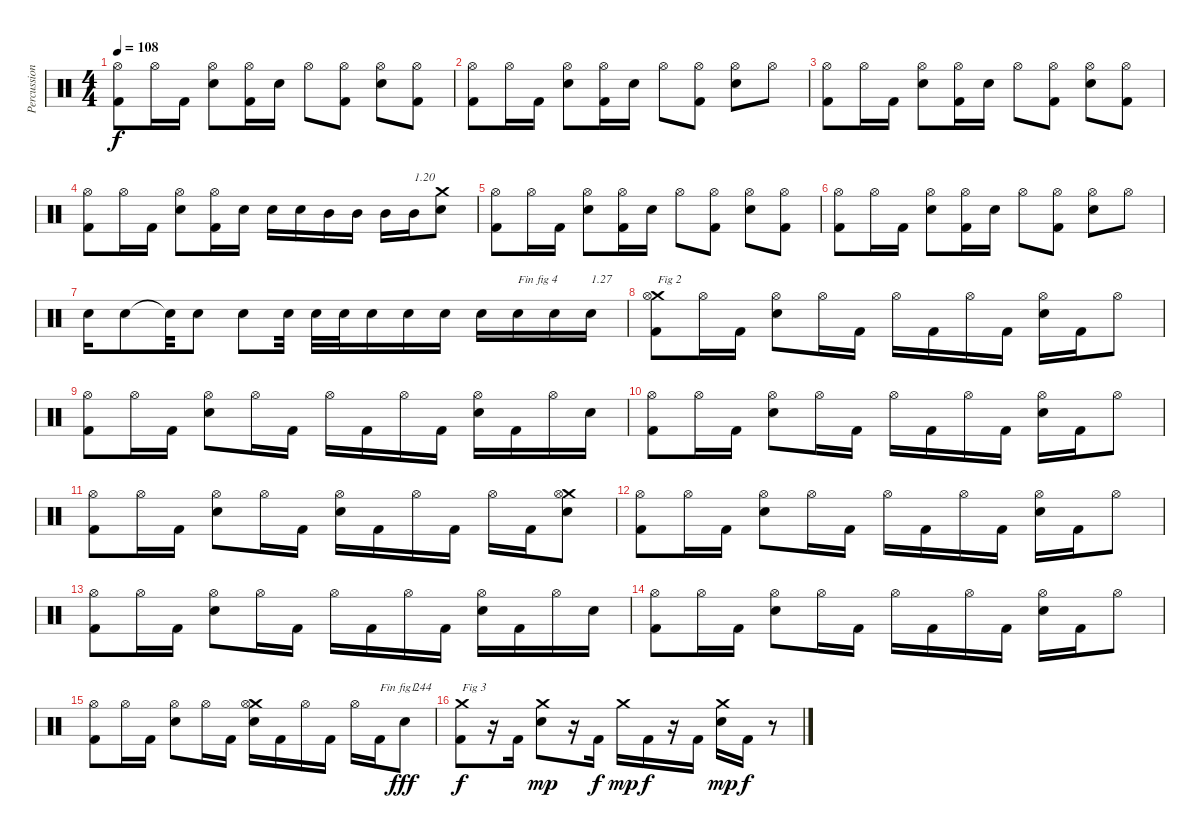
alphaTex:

\track ("Percussions" "Percussion") {instrument percussion}
\staff {score}
\articulation defaults
\ts (4 4)
\tempo 108
\clef neutral
\ks c
("Kick (hit) 2" "Hi-Hat (open)").8{dy f} "Hi-Hat (open)".16 "Kick (hit) 2".16 ("Electric Snare (hit)" "Hi-Hat (open)").8 ("Kick (hit) 2" "Hi-Hat (open)").16 "Electric Snare (hit)".16 "Hi-Hat (open)".8 ("Kick (hit) 2" "Hi-Hat (open)").8 ("Electric Snare (hit)" "Hi-Hat (open)").8 ("Kick (hit) 2" "Hi-Hat (open)").8 |
("Kick (hit) 2" "Hi-Hat (open)").8 "Hi-Hat (open)".16 "Kick (hit) 2".16 ("Electric Snare (hit)" "Hi-Hat (open)").8 ("Kick (hit) 2" "Hi-Hat (open)").16 "Electric Snare (hit)".16 "Hi-Hat (open)".8 ("Kick (hit) 2" "Hi-Hat (open)").8 ("Electric Snare (hit)" "Hi-Hat (open)").8 "Hi-Hat (open)".8 |
("Kick (hit) 2" "Hi-Hat (open)").8 "Hi-Hat (open)".16 "Kick (hit) 2".16 ("Electric Snare (hit)" "Hi-Hat (open)").8 ("Kick (hit) 2" "Hi-Hat (open)").16 "Electric Snare (hit)".16 "Hi-Hat (open)".8 ("Kick (hit) 2" "Hi-Hat (open)").8 ("Electric Snare (hit)" "Hi-Hat (open)").8 ("Kick (hit) 2" "Hi-Hat (open)").8 |
("Kick (hit) 2" "Hi-Hat (open)").8 "Hi-Hat (open)".16 "Kick (hit) 2".16 ("Electric Snare (hit)" "Hi-Hat (open)").8 ("Kick (hit) 2" "Hi-Hat (open)").16 "Electric Snare (hit)".16 "Electric Snare (hit)".16 "Electric Snare (hit)".16 "Mid Tom (hit)".16 "Mid Tom (hit)".16 "Mid Tom (hit)".16 "Mid Tom (hit)".16{txt "1.20"} ("Electric Snare (hit)" "Crash medium (hit)").8 |
("Kick (hit) 2" "Hi-Hat (open)").8 "Hi-Hat (open)".16 "Kick (hit) 2".16 ("Electric Snare (hit)" "Hi-Hat (open)").8 ("Kick (hit) 2" "Hi-Hat (open)").16 "Electric Snare (hit)".16 "Hi-Hat (open)".8 ("Kick (hit) 2" "Hi-Hat (open)").8 ("Electric Snare (hit)" "Hi-Hat (open)").8 ("Kick (hit) 2" "Hi-Hat (open)").8 |
("Kick (hit) 2" "Hi-Hat (open)").8 "Hi-Hat (open)".16 "Kick (hit) 2".16 ("Electric Snare (hit)" "Hi-Hat (open)").8 ("Kick (hit) 2" "Hi-Hat (open)").16 "Electric Snare (hit)".16 "Hi-Hat (open)".8 ("Kick (hit) 2" "Hi-Hat (open)").8 ("Electric Snare (hit)" "Hi-Hat (open)").8 "Hi-Hat (open)".8 |
"Electric Snare (hit)".16 "Electric Snare (hit)".8 "Snare (hit)"{t}.32 "Electric Snare (hit)".8 "Electric Snare (hit)".8 "Electric Snare (hit)".32 "Electric Snare (hit)".32 "Electric Snare (hit)".32 "Electric Snare (hit)".16 "Electric Snare (hit)".16 "Electric Snare (hit)".16 "Electric Snare (hit)".16 "Electric Snare (hit)".16{txt "Fin fig 4"} "Electric Snare (hit)".16 "Electric Snare (hit)".16{txt "1.27"} |
("Kick (hit) 2" "Crash medium (hit)" "Hi-Hat (open)").8{txt "Fig 2"} "Hi-Hat (open)".16 "Kick (hit) 2".16 ("Electric Snare (hit)" "Hi-Hat (open)").8 "Hi-Hat (open)".16 "Kick (hit) 2".16 "Hi-Hat (open)".16 "Kick (hit) 2".16 "Hi-Hat (open)".16 "Kick (hit) 2".16 ("Electric Snare (hit)" "Hi-Hat (open)").16 "Kick (hit) 2".16 "Hi-Hat (open)".8 |
("Kick (hit) 2" "Hi-Hat (open)").8 "Hi-Hat (open)".16 "Kick (hit) 2".16 ("Electric Snare (hit)" "Hi-Hat (open)").8 "Hi-Hat (open)".16 "Kick (hit) 2".16 "Hi-Hat (open)".16 "Kick (hit) 2".16 "Hi-Hat (open)".16 "Kick (hit) 2".16 ("Electric Snare (hit)" "Hi-Hat (open)").16 "Kick (hit) 2".16 "Hi-Hat (open)".16 "Electric Snare (hit)".16 |
("Kick (hit) 2" "Hi-Hat (open)").8 "Hi-Hat (open)".16 "Kick (hit) 2".16 ("Electric Snare (hit)" "Hi-Hat (open)").8 "Hi-Hat (open)".16 "Kick (hit) 2".16 "Hi-Hat (open)".16 "Kick (hit) 2".16 "Hi-Hat (open)".16 "Kick (hit) 2".16 ("Electric Snare (hit)" "Hi-Hat (open)").16 "Kick (hit) 2".16 "Hi-Hat (open)".8 |
("Kick (hit) 2" "Hi-Hat (open)").8 "Hi-Hat (open)".16 "Kick (hit) 2".16 ("Electric Snare (hit)" "Hi-Hat (open)").8 "Hi-Hat (open)".16 "Kick (hit) 2".16 ("Electric Snare (hit)" "Hi-Hat (open)").16 "Kick (hit) 2".16 "Hi-Hat (open)".16 "Kick (hit) 2".16 "Hi-Hat (open)".16 "Kick (hit) 2".16 ("Electric Snare (hit)" "Crash medium (hit)" "Hi-Hat (open)").8 |
("Kick (hit) 2" "Hi-Hat (open)").8 "Hi-Hat (open)".16 "Kick (hit) 2".16 ("Electric Snare (hit)" "Hi-Hat (open)").8 "Hi-Hat (open)".16 "Kick (hit) 2".16 "Hi-Hat (open)".16 "Kick (hit) 2".16 "Hi-Hat (open)".16 "Kick (hit) 2".16 ("Electric Snare (hit)" "Hi-Hat (open)").16 "Kick (hit) 2".16 "Hi-Hat (open)".8 |
("Kick (hit) 2" "Hi-Hat (open)").8 "Hi-Hat (open)".16 "Kick (hit) 2".16 ("Electric Snare (hit)" "Hi-Hat (open)").8 "Hi-Hat (open)".16 "Kick (hit) 2".16 "Hi-Hat (open)".16 "Kick (hit) 2".16 "Hi-Hat (open)".16 "Kick (hit) 2".16 ("Electric Snare (hit)" "Hi-Hat (open)").16 "Kick (hit) 2".16 "Hi-Hat (open)".16 "Electric Snare (hit)".16 |
("Kick (hit) 2" "Hi-Hat (open)").8 "Hi-Hat (open)".16 "Kick (hit) 2".16 ("Electric Snare (hit)" "Hi-Hat (open)").8 "Hi-Hat (open)".16 "Kick (hit) 2".16 "Hi-Hat (open)".16 "Kick (hit) 2".16 "Hi-Hat (open)".16 "Kick (hit) 2".16 ("Electric Snare (hit)" "Hi-Hat (open)").16 "Kick (hit) 2".16 "Hi-Hat (open)".8 |
("Kick (hit) 2" "Hi-Hat (open)").8 "Hi-Hat (open)".16 "Kick (hit) 2".16 ("Electric Snare (hit)" "Hi-Hat (open)").8 "Hi-Hat (open)".16 "Kick (hit) 2".16 ("Electric Snare (hit)" "Crash medium (hit)" "Hi-Hat (open)").16 "Kick (hit) 2".16 "Hi-Hat (open)".16 "Kick (hit) 2".16 "Hi-Hat (open)".16 "Kick (hit) 2".16{txt "Fin fig 2"} "Electric Snare (hit)".8{txt "  1.44" dy fff} |
("Kick (hit) 2" "Crash medium (hit)").8{txt "Fig 3" dy f} r.16 "Kick (hit) 2".16 ("Electric Snare (hit)" "Crash medium (hit)").8{dy mp} r.16 "Kick (hit) 2".16{dy f} "Crash medium (hit)".16{dy mp} "Kick (hit) 2".16{dy f} r.16 "Kick (hit) 2".16 ("Electric Snare (hit)" "Crash medium (hit)").16{dy mp} "Kick (hit) 2".16{dy f} r.8
